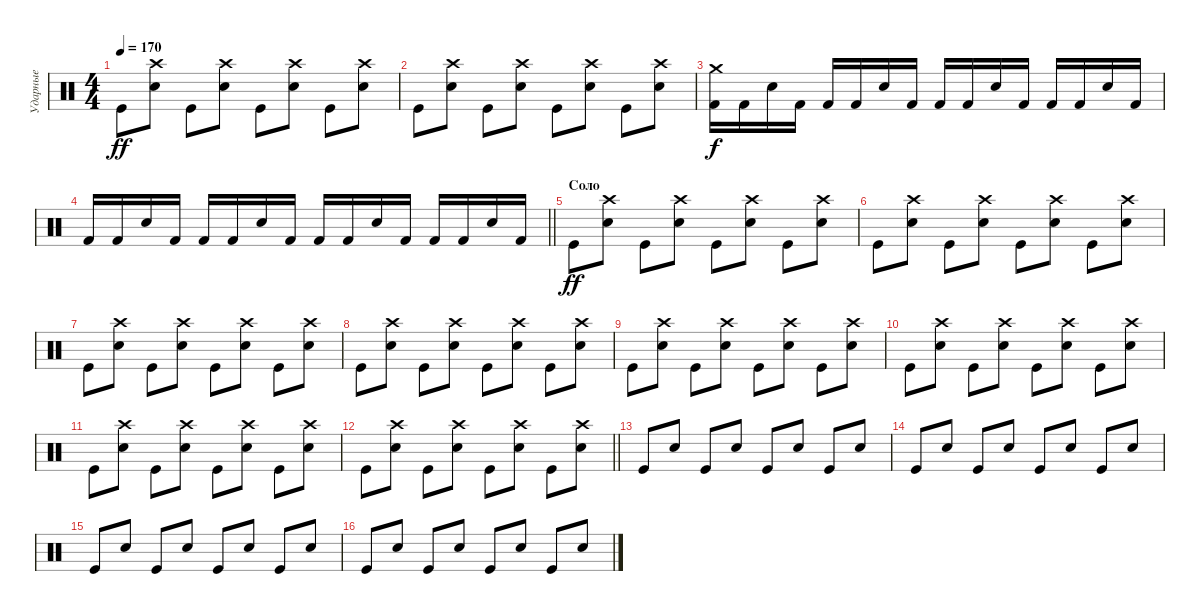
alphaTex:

\track ("Ударные" "Ударные") {instrument percussion}
\staff {score}
\articulation defaults
\ts (4 4)
\tempo 170
\clef neutral
\ks c "Kick (hit)".8{dy ff}
("Crash high (hit)" "Electric Snare (hit)").8 "Kick (hit)".8 ("Crash high (hit)" "Electric Snare (hit)").8 "Kick (hit)".8 ("Crash high (hit)" "Electric Snare (hit)").8 "Kick (hit)".8 ("Crash high (hit)" "Electric Snare (hit)").8 |
"Kick (hit)".8 ("Crash high (hit)" "Electric Snare (hit)").8 "Kick (hit)".8 ("Crash high (hit)" "Electric Snare (hit)").8 "Kick (hit)".8 ("Crash high (hit)" "Electric Snare (hit)").8 "Kick (hit)".8 ("Crash high (hit)" "Electric Snare (hit)").8 |
("Crash medium (hit)" "Kick (hit) 2").16{dy f} "Kick (hit) 2".16 "Snare (hit) 2".16 "Kick (hit) 2".16 "Kick (hit) 2".16 "Kick (hit) 2".16 "Snare (hit) 2".16 "Kick (hit) 2".16 "Kick (hit) 2".16 "Kick (hit) 2".16 "Snare (hit) 2".16 "Kick (hit) 2".16 "Kick (hit) 2".16 "Kick (hit) 2".16 "Snare (hit) 2".16 "Kick (hit) 2".16 |
\barLineRight lightlight "Kick (hit) 2".16 "Kick (hit) 2".16 "Snare (hit) 2".16 "Kick (hit) 2".16 "Kick (hit) 2".16 "Kick (hit) 2".16 "Snare (hit) 2".16 "Kick (hit) 2".16 "Kick (hit) 2".16 "Kick (hit) 2".16 "Snare (hit) 2".16 "Kick (hit) 2".16 "Kick (hit) 2".16 "Kick (hit) 2".16 "Snare (hit) 2".16 "Kick (hit) 2".16
|
\section ("" "Соло")
"Kick (hit)".8{dy ff} ("Crash high (hit)" "Electric Snare (hit)").8 "Kick (hit)".8 ("Crash high (hit)" "Electric Snare (hit)").8 "Kick (hit)".8 ("Crash high (hit)" "Electric Snare (hit)").8 "Kick (hit)".8 ("Crash high (hit)" "Electric Snare (hit)").8 |
"Kick (hit)".8 ("Crash high (hit)" "Electric Snare (hit)").8 "Kick (hit)".8 ("Crash high (hit)" "Electric Snare (hit)").8 "Kick (hit)".8 ("Crash high (hit)" "Electric Snare (hit)").8 "Kick (hit)".8 ("Crash high (hit)" "Electric Snare (hit)").8 |
"Kick (hit)".8 ("Crash high (hit)" "Electric Snare (hit)").8 "Kick (hit)".8 ("Crash high (hit)" "Electric Snare (hit)").8 "Kick (hit)".8 ("Crash high (hit)" "Electric Snare (hit)").8 "Kick (hit)".8 ("Crash high (hit)" "Electric Snare (hit)").8 |
"Kick (hit)".8 ("Crash high (hit)" "Electric Snare (hit)").8 "Kick (hit)".8 ("Crash high (hit)" "Electric Snare (hit)").8 "Kick (hit)".8 ("Crash high (hit)" "Electric Snare (hit)").8 "Kick (hit)".8 ("Crash high (hit)" "Electric Snare (hit)").8 |
"Kick (hit)".8 ("Crash high (hit)" "Electric Snare (hit)").8 "Kick (hit)".8 ("Crash high (hit)" "Electric Snare (hit)").8 "Kick (hit)".8 ("Crash high (hit)" "Electric Snare (hit)").8 "Kick (hit)".8 ("Crash high (hit)" "Electric Snare (hit)").8 |
"Kick (hit)".8 ("Crash high (hit)" "Electric Snare (hit)").8 "Kick (hit)".8 ("Crash high (hit)" "Electric Snare (hit)").8 "Kick (hit)".8 ("Crash high (hit)" "Electric Snare (hit)").8 "Kick (hit)".8 ("Crash high (hit)" "Electric Snare (hit)").8 |
"Kick (hit)".8 ("Crash high (hit)" "Electric Snare (hit)").8 "Kick (hit)".8 ("Crash high (hit)" "Electric Snare (hit)").8 "Kick (hit)".8 ("Crash high (hit)" "Electric Snare (hit)").8 "Kick (hit)".8 ("Crash high (hit)" "Electric Snare (hit)").8 |
\barLineRight lightlight "Kick (hit)".8
("Crash high (hit)" "Electric Snare (hit)").8 "Kick (hit)".8 ("Crash high (hit)" "Electric Snare (hit)").8 "Kick (hit)".8 ("Crash high (hit)" "Electric Snare (hit)").8 "Kick (hit)".8 ("Crash high (hit)" "Electric Snare (hit)").8 |
\section ("" "")
"Kick (hit)".8 "Electric Snare (hit)".8 "Kick (hit)".8 "Electric Snare (hit)".8 "Kick (hit)".8 "Electric Snare (hit)".8 "Kick (hit)".8 "Electric Snare (hit)".8 |
"Kick (hit)".8 "Electric Snare (hit)".8 "Kick (hit)".8 "Electric Snare (hit)".8 "Kick (hit)".8 "Electric Snare (hit)".8 "Kick (hit)".8 "Electric Snare (hit)".8 |
"Kick (hit)".8 "Electric Snare (hit)".8 "Kick (hit)".8 "Electric Snare (hit)".8 "Kick (hit)".8 "Electric Snare (hit)".8 "Kick (hit)".8 "Electric Snare (hit)".8 |
"Kick (hit)".8 "Electric Snare (hit)".8 "Kick (hit)".8 "Electric Snare (hit)".8 "Kick (hit)".8 "Electric Snare (hit)".8 "Kick (hit)".8 "Electric Snare (hit)".8
